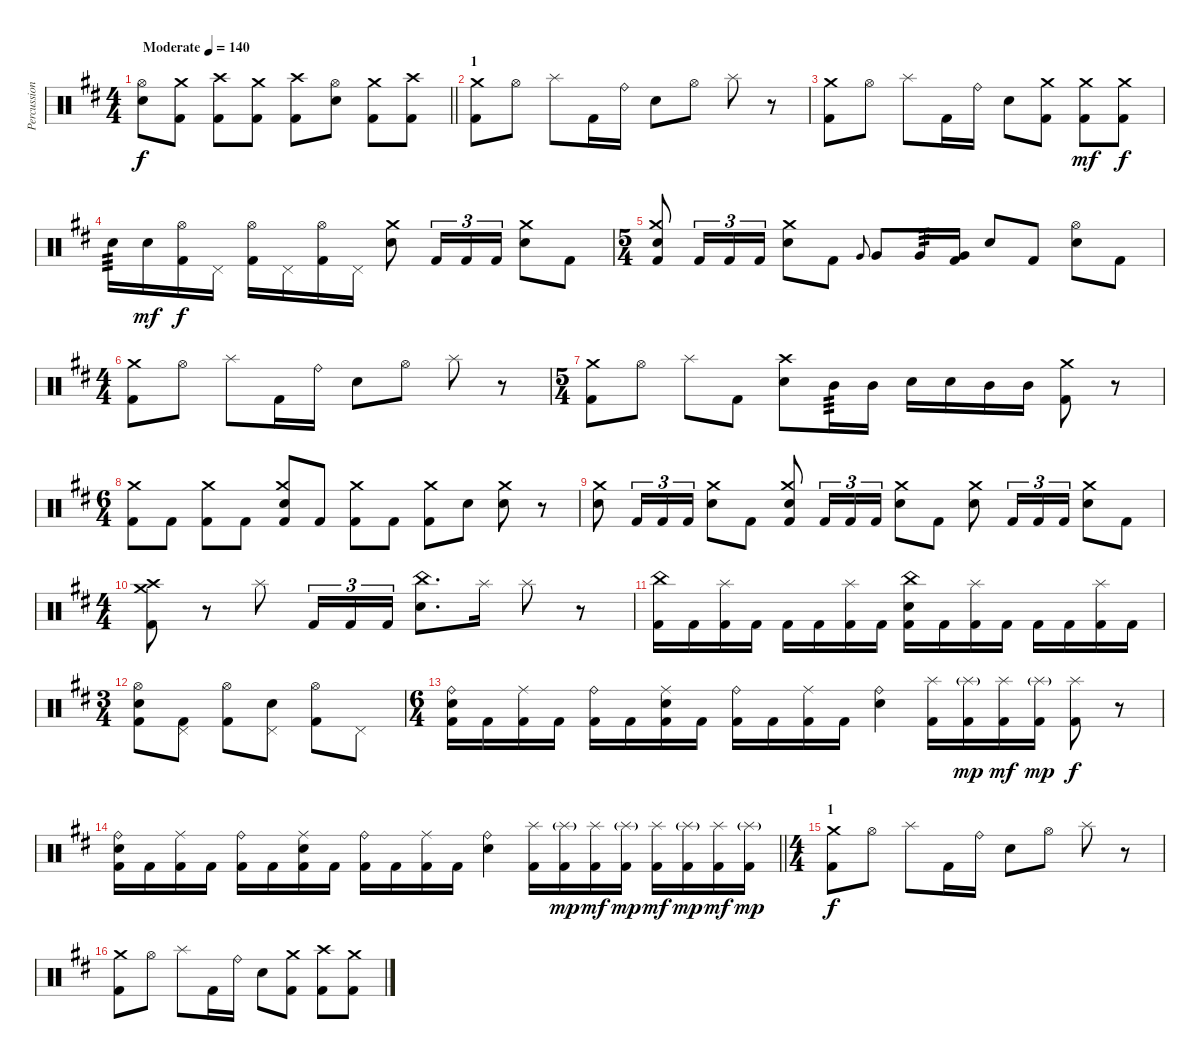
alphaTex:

\track ("Percussion" "Percussion") {instrument percussion}
\staff {score}
\articulation defaults
\ts (4 4)
\tempo (140 "Moderate")
\clef neutral
\barLineRight lightlight
\ks bminor
("Hi-Hat (open)" "Snare (hit) 2").8{dy f} ("Crash medium (hit)" "Kick (hit) 2").8 ("Crash high (hit)" "Kick (hit) 2").8 ("Crash medium (hit)" "Kick (hit) 2").8 ("Crash high (hit)" "Kick (hit) 2").8 ("Hi-Hat (open)" "Snare (hit) 2").8 ("Crash medium (hit)" "Kick (hit) 2").8 ("Crash high (hit)" "Kick (hit) 2").8 |
\section ("" "1")
("Crash medium (hit)" "Kick (hit) 2").8 "Hi-Hat (open)".8 "Splash (hit)".8 "Kick (hit) 2".16 "Ride (bell)".16 "Snare (hit) 2".8 "Hi-Hat (open)".8 "Splash (hit)".8 r.8 |
("Crash medium (hit)" "Kick (hit) 2").8 "Hi-Hat (open)".8 "Splash (hit)".8 "Kick (hit) 2".16 "Ride (bell)".16 "Snare (hit) 2".8 ("Crash medium (hit)" "Kick (hit) 2").8 ("Crash medium (hit)" "Kick (hit) 2").8{dy mf} ("Crash medium (hit)" "Kick (hit) 2").8{dy f} |
"Snare (hit) 2".16{tp 3} "Snare (hit) 2".16{dy mf} ("Hi-Hat (open)" "Kick (hit) 2").16{dy f} "Pedal Hi-Hat (hit)".16 ("Hi-Hat (open)" "Kick (hit) 2").16 "Pedal Hi-Hat (hit)".16 ("Hi-Hat (open)" "Kick (hit) 2").16 "Pedal Hi-Hat (hit)".16 ("Crash medium (hit)" "Snare (hit) 2").8 "Kick (hit) 2".16{tu (3 2)} "Kick (hit) 2".16{tu (3 2)} "Kick (hit) 2".16{tu (3 2)} ("Crash medium (hit)" "Snare (hit) 2").8 "Kick (hit) 2".8 |
\ts (5 4)
("Crash medium (hit)" "Snare (hit) 2" "Kick (hit) 2").8 "Kick (hit) 2".16{tu (3 2)} "Kick (hit) 2".16{tu (3 2)} "Kick (hit) 2".16{tu (3 2)} ("Crash medium (hit)" "Snare (hit) 2").8 "Kick (hit) 2".8 "Very Low Tom (hit)".8{gr onbeat} "Very Low Tom (hit)".8 "Very Low Tom (hit)".16{tp 3} ("Very Low Tom (hit)" "Kick (hit) 2").16 "Snare (hit) 2".8 "Kick (hit) 2".8 ("Hi-Hat (open)" "Snare (hit) 2").8 "Kick (hit) 2".8 |
\ts (4 4)
("Crash medium (hit)" "Kick (hit) 2").8 "Hi-Hat (open)".8 "Splash (hit)".8 "Kick (hit) 2".16 "Ride (bell)".16 "Snare (hit) 2".8 "Hi-Hat (open)".8 "Splash (hit)".8 r.8 |
\ts (5 4)
("Crash medium (hit)" "Kick (hit) 2").8 "Hi-Hat (open)".8 "Splash (hit)".8 "Kick (hit) 2".8 ("Crash high (hit)" "Snare (hit) 2").8 "Mid Tom (hit)".16{tp 3} "Mid Tom (hit)".16 "Snare (hit) 2".16 "Snare (hit) 2".16 "Mid Tom (hit)".16 "Mid Tom (hit)".16 ("Crash medium (hit)" "Kick (hit) 2").8 r.8 |
\ts (6 4)
("Crash medium (hit)" "Kick (hit) 2").8 "Kick (hit) 2".8 ("Crash medium (hit)" "Kick (hit) 2").8 "Kick (hit) 2".8 ("Crash medium (hit)" "Snare (hit) 2" "Kick (hit) 2").8 "Kick (hit) 2".8 ("Crash medium (hit)" "Kick (hit) 2").8 "Kick (hit) 2".8 ("Crash medium (hit)" "Kick (hit) 2").8 "Snare (hit) 2".8 ("Crash medium (hit)" "Snare (hit) 2").8 r.8 |
("Crash medium (hit)" "Snare (hit) 2").8 "Kick (hit) 2".16{tu (3 2)} "Kick (hit) 2".16{tu (3 2)} "Kick (hit) 2".16{tu (3 2)} ("Crash medium (hit)" "Snare (hit) 2").8 "Kick (hit) 2".8 ("Crash medium (hit)" "Snare (hit) 2" "Kick (hit) 2").8 "Kick (hit) 2".16{tu (3 2)} "Kick (hit) 2".16{tu (3 2)} "Kick (hit) 2".16{tu (3 2)} ("Crash medium (hit)" "Snare (hit) 2").8 "Kick (hit) 2".8 ("Crash medium (hit)" "Snare (hit) 2").8 "Kick (hit) 2".16{tu (3 2)} "Kick (hit) 2".16{tu (3 2)} "Kick (hit) 2".16{tu (3 2)} ("Crash medium (hit)" "Snare (hit) 2").8 "Kick (hit) 2".8 |
\ts (4 4)
("Crash medium (hit)" "Crash high (hit)" "Kick (hit) 2").8 r.8 "Splash (hit)".8 "Kick (hit) 2".16{tu (3 2)} "Kick (hit) 2".16{tu (3 2)} "Kick (hit) 2".16{tu (3 2)} ("China (hit)" "Snare (hit) 2").8{d} "Splash (hit)".16 "Splash (hit)".8 r.8 |
("China (hit)" "Kick (hit) 2").16 "Kick (hit) 2".16 ("Splash (hit)" "Kick (hit) 2").16 "Kick (hit) 2".16 "Kick (hit) 2".16 "Kick (hit) 2".16 ("Splash (hit)" "Kick (hit) 2").16 "Kick (hit) 2".16 ("China (hit)" "Snare (hit) 2" "Kick (hit) 2").16 "Kick (hit) 2".16 ("Splash (hit)" "Kick (hit) 2").16 "Kick (hit) 2".16 "Kick (hit) 2".16 "Kick (hit) 2".16 ("Splash (hit)" "Kick (hit) 2").16 "Kick (hit) 2".16 |
\ts (3 4)
("Hi-Hat (open)" "Snare (hit) 2" "Kick (hit) 2").8 ("Pedal Hi-Hat (hit)" "Kick (hit) 2").8 ("Hi-Hat (open)" "Kick (hit) 2").8 ("Pedal Hi-Hat (hit)" "Snare (hit) 2").8 ("Hi-Hat (open)" "Kick (hit) 2").8 "Pedal Hi-Hat (hit)".8 |
\ts (6 4)
("Ride (bell)" "Snare (hit) 2" "Kick (hit) 2").16 "Kick (hit) 2".16 ("Ride (middle)" "Kick (hit) 2").16 "Kick (hit) 2".16 ("Ride (bell)" "Kick (hit) 2").16 "Kick (hit) 2".16 ("Ride (middle)" "Snare (hit) 2" "Kick (hit) 2").16 "Kick (hit) 2".16 ("Ride (bell)" "Kick (hit) 2").16 "Kick (hit) 2".16 ("Ride (middle)" "Kick (hit) 2").16 "Kick (hit) 2".16 ("Ride (bell)" "Snare (hit) 2").4 ("Splash (hit)" "Kick (hit) 2").16 ("Splash (hit)"{g} "Kick (hit) 2").16{dy mp} ("Splash (hit)" "Kick (hit) 2").16{dy mf} ("Splash (hit)"{g} "Kick (hit) 2").16{dy mp} ("Splash (hit)" "Kick (hit) 2").8{dy f} r.8 |
\barLineRight lightlight
("Ride (bell)" "Snare (hit) 2" "Kick (hit) 2").16 "Kick (hit) 2".16 ("Ride (middle)" "Kick (hit) 2").16 "Kick (hit) 2".16 ("Ride (bell)" "Kick (hit) 2").16 "Kick (hit) 2".16 ("Ride (middle)" "Snare (hit) 2" "Kick (hit) 2").16 "Kick (hit) 2".16 ("Ride (bell)" "Kick (hit) 2").16 "Kick (hit) 2".16 ("Ride (middle)" "Kick (hit) 2").16 "Kick (hit) 2".16 ("Ride (bell)" "Snare (hit) 2").4 ("Splash (hit)" "Kick (hit) 2").16 ("Splash (hit)"{g} "Kick (hit) 2").16{dy mp} ("Splash (hit)" "Kick (hit) 2").16{dy mf} ("Splash (hit)"{g} "Kick (hit) 2").16{dy mp} ("Splash (hit)" "Kick (hit) 2").16{dy mf} ("Splash (hit)"{g} "Kick (hit) 2").16{dy mp} ("Splash (hit)" "Kick (hit) 2").16{dy mf} ("Splash (hit)"{g} "Kick (hit) 2").16{dy mp} |
\ts (4 4)
\section ("" "1")
("Crash medium (hit)" "Kick (hit) 2").8{dy f} "Hi-Hat (open)".8 "Splash (hit)".8 "Kick (hit) 2".16 "Ride (bell)".16 "Snare (hit) 2".8 "Hi-Hat (open)".8 "Splash (hit)".8 r.8 |
("Crash medium (hit)" "Kick (hit) 2").8 "Hi-Hat (open)".8 "Splash (hit)".8 "Kick (hit) 2".16 "Ride (bell)".16 "Snare (hit) 2".8 ("Crash medium (hit)" "Kick (hit) 2").8 ("Crash high (hit)" "Kick (hit) 2").8 ("Crash medium (hit)" "Kick (hit) 2").8
